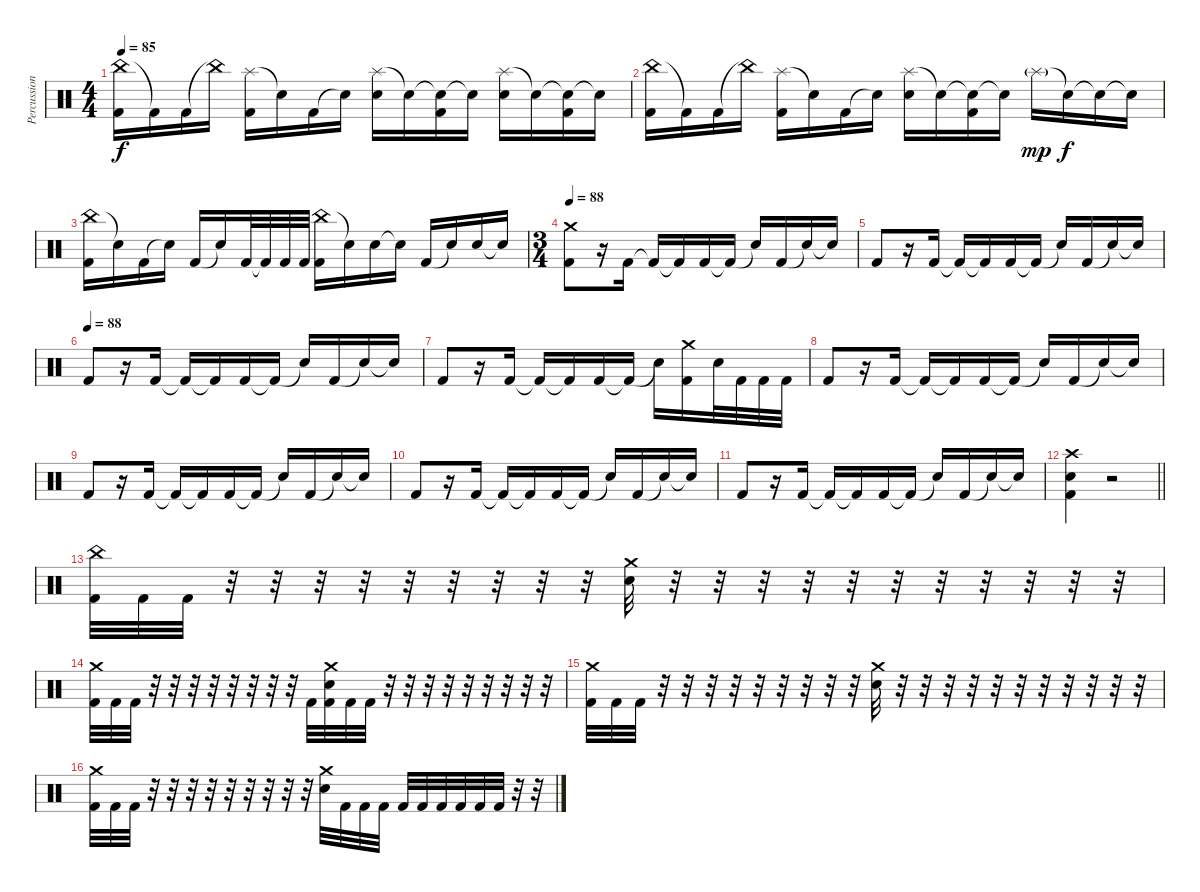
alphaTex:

\track ("Percussion [Optional]" "Percussion") {instrument percussion}
\staff {score}
\articulation defaults
\ts (4 4)
\tempo 85
\clef neutral
\ks c
("China (hit)" "Kick (hit) 2").16{dy f} "Kick (hit) 2"{t}.16 "Kick (hit) 2".16 "China (hit)"{t}.16 ("Splash (hit)" "Kick (hit) 2").16 "Snare (hit)"{t}.16 "Kick (hit) 2".16 "Snare (hit)"{t}.16 ("Splash (hit)" "Electric Snare (hit)").16 "Snare (hit)"{t}.16 ("Snare (hit)"{t} "Kick (hit) 2").16 "Snare (hit)"{t}.16 ("Splash (hit)" "Electric Snare (hit)").16 "Snare (hit)"{t}.16 ("Snare (hit)"{t} "Kick (hit) 2").16 "Snare (hit)"{t}.16 |
("China (hit)" "Kick (hit) 2").16 "Kick (hit) 2"{t}.16 "Kick (hit) 2".16 "China (hit)"{t}.16 ("Splash (hit)" "Kick (hit) 2").16 "Snare (hit)"{t}.16 "Kick (hit) 2".16 "Snare (hit)"{t}.16 ("Splash (hit)" "Electric Snare (hit)").16 "Snare (hit)"{t}.16 ("Snare (hit)"{t} "Kick (hit) 2").16 "Snare (hit)"{t}.16 "Splash (hit)"{g}.16{dy mp} "Snare (hit)"{t}.16{dy f} "Snare (hit)"{t}.16 "Snare (hit)"{t}.16 |
("China (hit)" "Kick (hit) 2").16 "Snare (hit)"{t}.16 "Kick (hit) 2".16 "Snare (hit)"{t}.16 "Kick (hit) 2".16 "Snare (hit)"{t}.16 "Kick (hit) 2".32 "Kick (hit) 2"{t}.32 "Kick (hit) 2".32 "Kick (hit) 2".32 ("China (hit)" "Kick (hit) 2").16 "Snare (hit)"{t}.16 "Electric Snare (hit)".16 "Snare (hit)"{t}.16 "Kick (hit) 2".16 "Snare (hit)"{t}.16 "Electric Snare (hit)".16 "Snare (hit)"{t}.16 |
\ts (3 4)
\tempo 88
("Crash medium (hit)" "Kick (hit) 2").8 r.16 "Kick (hit) 2".16 "Kick (hit) 2"{t}.16 "Kick (hit) 2"{t}.16 "Kick (hit) 2".16 "Kick (hit) 2"{t}.16 "Snare (hit)"{t}.16 "Kick (hit) 2".16 "Snare (hit)"{t}.16 "Snare (hit)"{t}.16 |
"Kick (hit) 2".8 r.16 "Kick (hit) 2".16 "Kick (hit) 2"{t}.16 "Kick (hit) 2"{t}.16 "Kick (hit) 2".16 "Kick (hit) 2"{t}.16 "Snare (hit)"{t}.16 "Kick (hit) 2".16 "Snare (hit)"{t}.16 "Snare (hit)"{t}.16 |
\tempo (88)
"Kick (hit) 2".8 r.16 "Kick (hit) 2".16 "Kick (hit) 2"{t}.16 "Kick (hit) 2"{t}.16 "Kick (hit) 2".16 "Kick (hit) 2"{t}.16 "Snare (hit)"{t}.16 "Kick (hit) 2".16 "Snare (hit)"{t}.16 "Snare (hit)"{t}.16 |
"Kick (hit) 2".8 r.16 "Kick (hit) 2".16 "Kick (hit) 2"{t}.16 "Kick (hit) 2"{t}.16 "Kick (hit) 2".16 "Kick (hit) 2"{t}.16 "Snare (hit)"{t}.16 ("Crash medium (hit)" "Kick (hit) 2").16 "Electric Snare (hit)".32 "Kick (hit) 2".32 "Kick (hit) 2".32 "Kick (hit) 2".32 |
"Kick (hit) 2".8 r.16 "Kick (hit) 2".16 "Kick (hit) 2"{t}.16 "Kick (hit) 2"{t}.16 "Kick (hit) 2".16 "Kick (hit) 2"{t}.16 "Snare (hit)"{t}.16 "Kick (hit) 2".16 "Snare (hit)"{t}.16 "Snare (hit)"{t}.16 |
"Kick (hit) 2".8 r.16 "Kick (hit) 2".16 "Kick (hit) 2"{t}.16 "Kick (hit) 2"{t}.16 "Kick (hit) 2".16 "Kick (hit) 2"{t}.16 "Snare (hit)"{t}.16 "Kick (hit) 2".16 "Snare (hit)"{t}.16 "Snare (hit)"{t}.16 |
"Kick (hit) 2".8 r.16 "Kick (hit) 2".16 "Kick (hit) 2"{t}.16 "Kick (hit) 2"{t}.16 "Kick (hit) 2".16 "Kick (hit) 2"{t}.16 "Snare (hit)"{t}.16 "Kick (hit) 2".16 "Snare (hit)"{t}.16 "Snare (hit)"{t}.16 |
"Kick (hit) 2".8 r.16 "Kick (hit) 2".16 "Kick (hit) 2"{t}.16 "Kick (hit) 2"{t}.16 "Kick (hit) 2".16 "Kick (hit) 2"{t}.16 "Snare (hit)"{t}.16 "Kick (hit) 2".16 "Snare (hit)"{t}.16 "Snare (hit)"{t}.16 |
\barLineRight lightlight
("Electric Snare (hit)" "Crash high (hit)" "Kick (hit) 2").4 r.2 |
("China (hit)" "Kick (hit) 2").32 "Kick (hit) 2".32 "Kick (hit) 2".32 r.32 r.32 r.32 r.32 r.32 r.32 r.32 r.32 r.32 ("Crash medium (hit)" "Electric Snare (hit)").32 r.32 r.32 r.32 r.32 r.32 r.32 r.32 r.32 r.32 r.32 r.32 |
("Crash medium (hit)" "Kick (hit) 2").32 "Kick (hit) 2".32 "Kick (hit) 2".32 r.32 r.32 r.32 r.32 r.32 r.32 r.32 r.32 "Kick (hit) 2".32 ("Crash medium (hit)" "Electric Snare (hit)" "Kick (hit) 2").32 "Kick (hit) 2".32 "Kick (hit) 2".32 r.32 r.32 r.32 r.32 r.32 r.32 r.32 r.32 r.32 |
("Crash medium (hit)" "Kick (hit) 2").32 "Kick (hit) 2".32 "Kick (hit) 2".32 r.32 r.32 r.32 r.32 r.32 r.32 r.32 r.32 r.32 ("Crash medium (hit)" "Electric Snare (hit)").32 r.32 r.32 r.32 r.32 r.32 r.32 r.32 r.32 r.32 r.32 r.32 |
("Crash medium (hit)" "Kick (hit) 2").32 "Kick (hit) 2".32 "Kick (hit) 2".32 r.32 r.32 r.32 r.32 r.32 r.32 r.32 r.32 r.32 ("Crash medium (hit)" "Electric Snare (hit)").32 "Kick (hit) 2".32 "Kick (hit) 2".32 "Kick (hit) 2".32 "Kick (hit) 2".32 "Kick (hit) 2".32 "Kick (hit) 2".32 "Kick (hit) 2".32 "Kick (hit) 2".32 "Kick (hit) 2".32 r.32 r.32
